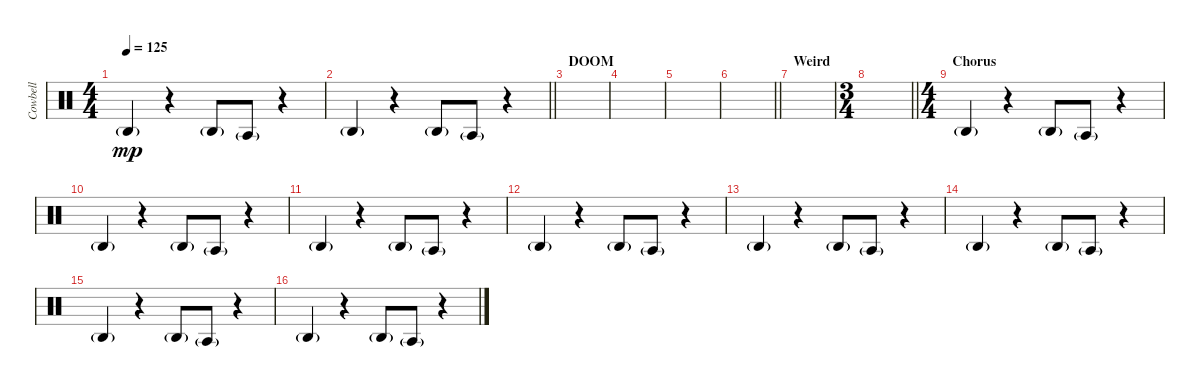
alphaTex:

\track ("Cowbell" "Cowbell") {instrument percussion}
\staff {score}
\articulation defaults
\ts (4 4)
\tempo 125
\clef neutral
\ks c "Agogo high (hit)"{g}.4{dy mp}
r.4 "Agogo high (hit)"{g}.8 "Agogo tow (hit)"{g}.8 r.4 |
\barLineRight lightlight "Agogo high (hit)"{g}.4
r.4 "Agogo high (hit)"{g}.8 "Agogo tow (hit)"{g}.8 r.4 |
\section ("" "DOOM")
|
|
|
\barLineRight lightlight
|
\section ("" "Weird")
|
\ts (3 4)
\barLineRight lightlight
|
\ts (4 4)
\section ("" "Chorus")
"Agogo high (hit)"{g}.4 r.4 "Agogo high (hit)"{g}.8 "Agogo tow (hit)"{g}.8 r.4 |
"Agogo high (hit)"{g}.4 r.4 "Agogo high (hit)"{g}.8 "Agogo tow (hit)"{g}.8 r.4 |
"Agogo high (hit)"{g}.4 r.4 "Agogo high (hit)"{g}.8 "Agogo tow (hit)"{g}.8 r.4 |
"Agogo high (hit)"{g}.4 r.4 "Agogo high (hit)"{g}.8 "Agogo tow (hit)"{g}.8 r.4 |
"Agogo high (hit)"{g}.4 r.4 "Agogo high (hit)"{g}.8 "Agogo tow (hit)"{g}.8 r.4 |
"Agogo high (hit)"{g}.4 r.4 "Agogo high (hit)"{g}.8 "Agogo tow (hit)"{g}.8 r.4 |
"Agogo high (hit)"{g}.4 r.4 "Agogo high (hit)"{g}.8 "Agogo tow (hit)"{g}.8 r.4 |
"Agogo high (hit)"{g}.4 r.4 "Agogo high (hit)"{g}.8 "Agogo tow (hit)"{g}.8 r.4
